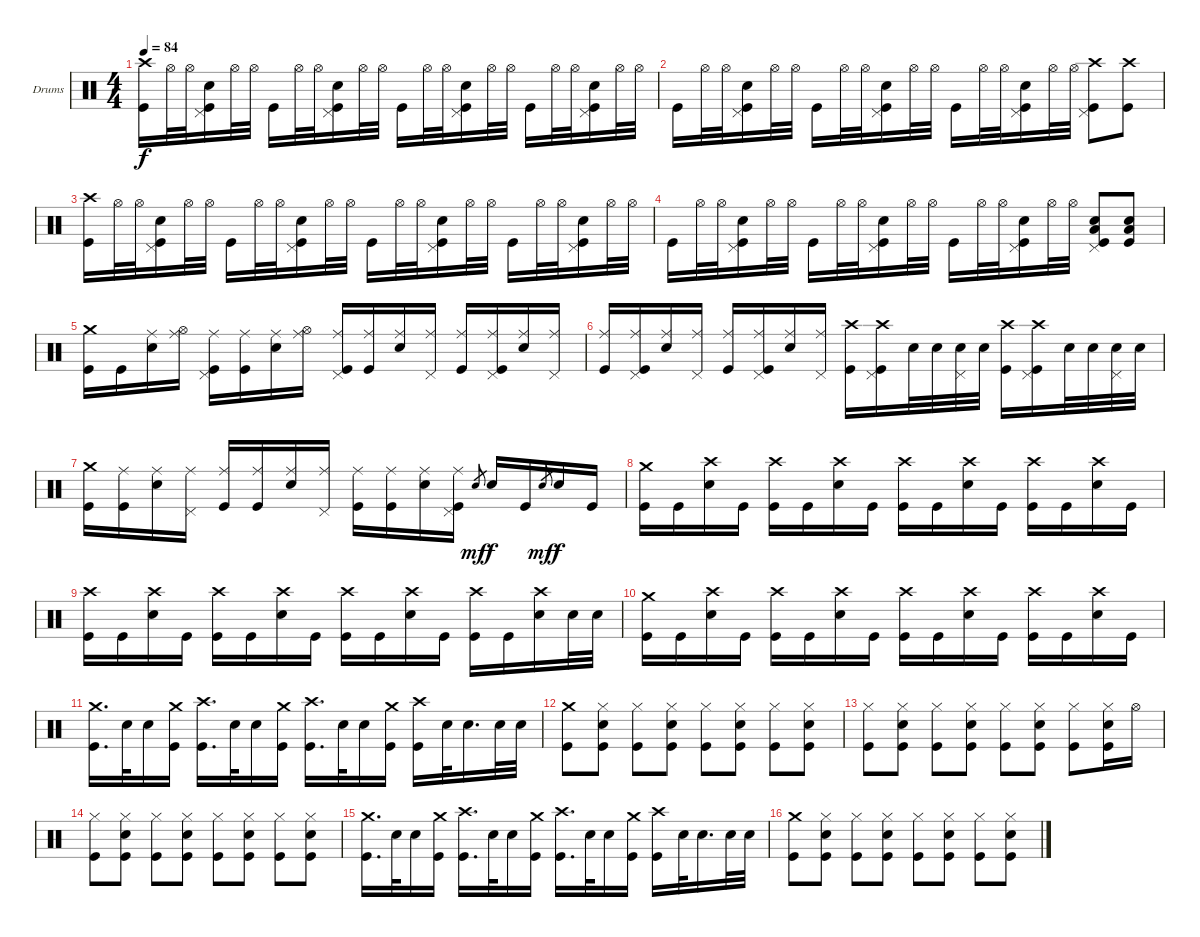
\bracketExtendMode groupsimilarinstruments
\firstSystemTrackNameOrientation horizontal
\otherSystemsTrackNameOrientation horizontal
\track ("Drumkit" "Drums") {solo instrument percussion}
\staff {score}
\articulation defaults
\ts (4 4)
\tempo 84
\clef neutral
\ks c
("Crash high (hit)" "Kick (hit)").16{dy f} "Hi-Hat (open)".32 "Hi-Hat (open)".32 ("Pedal Hi-Hat (hit)" "Snare (hit) 2" "Kick (hit)").16 "Hi-Hat (open)".32 "Hi-Hat (open)".32 "Kick (hit)".16 "Hi-Hat (open)".32 "Hi-Hat (open)".32 ("Pedal Hi-Hat (hit)" "Snare (hit) 2" "Kick (hit)").16 "Hi-Hat (open)".32 "Hi-Hat (open)".32 "Kick (hit)".16 "Hi-Hat (open)".32 "Hi-Hat (open)".32 ("Pedal Hi-Hat (hit)" "Snare (hit) 2" "Kick (hit)").16 "Hi-Hat (open)".32 "Hi-Hat (open)".32 "Kick (hit)".16 "Hi-Hat (open)".32 "Hi-Hat (open)".32 ("Pedal Hi-Hat (hit)" "Snare (hit) 2" "Kick (hit)").16 "Hi-Hat (open)".32 "Hi-Hat (open)".32 |
"Kick (hit)".16 "Hi-Hat (open)".32 "Hi-Hat (open)".32 ("Pedal Hi-Hat (hit)" "Snare (hit) 2" "Kick (hit)").16 "Hi-Hat (open)".32 "Hi-Hat (open)".32 "Kick (hit)".16 "Hi-Hat (open)".32 "Hi-Hat (open)".32 ("Pedal Hi-Hat (hit)" "Snare (hit) 2" "Kick (hit)").16 "Hi-Hat (open)".32 "Hi-Hat (open)".32 "Kick (hit)".16 "Hi-Hat (open)".32 "Hi-Hat (open)".32 ("Pedal Hi-Hat (hit)" "Snare (hit) 2" "Kick (hit)").16 "Hi-Hat (open)".32 "Hi-Hat (open)".32 ("Crash high (hit)" "Pedal Hi-Hat (hit)" "Kick (hit)").8 ("Crash high (hit)" "Kick (hit)").8 |
("Crash high (hit)" "Kick (hit)").16 "Hi-Hat (open)".32 "Hi-Hat (open)".32 ("Pedal Hi-Hat (hit)" "Snare (hit) 2" "Kick (hit)").16 "Hi-Hat (open)".32 "Hi-Hat (open)".32 "Kick (hit)".16 "Hi-Hat (open)".32 "Hi-Hat (open)".32 ("Pedal Hi-Hat (hit)" "Snare (hit) 2" "Kick (hit)").16 "Hi-Hat (open)".32 "Hi-Hat (open)".32 "Kick (hit)".16 "Hi-Hat (open)".32 "Hi-Hat (open)".32 ("Pedal Hi-Hat (hit)" "Snare (hit) 2" "Kick (hit)").16 "Hi-Hat (open)".32 "Hi-Hat (open)".32 "Kick (hit)".16 "Hi-Hat (open)".32 "Hi-Hat (open)".32 ("Pedal Hi-Hat (hit)" "Snare (hit) 2" "Kick (hit)").16 "Hi-Hat (open)".32 "Hi-Hat (open)".32 |
"Kick (hit)".16 "Hi-Hat (open)".32 "Hi-Hat (open)".32 ("Pedal Hi-Hat (hit)" "Snare (hit) 2" "Kick (hit)").16 "Hi-Hat (open)".32 "Hi-Hat (open)".32 "Kick (hit)".16 "Hi-Hat (open)".32 "Hi-Hat (open)".32 ("Pedal Hi-Hat (hit)" "Snare (hit) 2" "Kick (hit)").16 "Hi-Hat (open)".32 "Hi-Hat (open)".32 "Kick (hit)".16 "Hi-Hat (open)".32 "Hi-Hat (open)".32 ("Pedal Hi-Hat (hit)" "Snare (hit) 2" "Kick (hit)").16 "Hi-Hat (open)".32 "Hi-Hat (open)".32 ("Pedal Hi-Hat (hit)" "Snare (hit) 2" "Low Tom (hit)" "Kick (hit)").8 ("Snare (hit) 2" "Low Tom (hit)" "Kick (hit)").8 |
("Crash medium (hit)" "Kick (hit)").16 "Kick (hit)".16 ("Ride (middle)" "Snare (hit) 2").16 ("Ride (middle)" "Hi-Hat (open)").16 ("Ride (middle)" "Pedal Hi-Hat (hit)" "Kick (hit)").16 ("Ride (middle)" "Kick (hit)").16 ("Ride (middle)" "Snare (hit) 2").16 ("Ride (middle)" "Hi-Hat (open)").16 ("Ride (middle)" "Pedal Hi-Hat (hit)" "Kick (hit)").16 ("Ride (middle)" "Kick (hit)").16 ("Ride (middle)" "Snare (hit) 2").16 ("Ride (middle)" "Pedal Hi-Hat (hit)").16 ("Ride (middle)" "Kick (hit)").16 ("Ride (middle)" "Pedal Hi-Hat (hit)" "Kick (hit)").16 ("Ride (middle)" "Snare (hit) 2").16 ("Ride (middle)" "Pedal Hi-Hat (hit)").16 |
("Ride (middle)" "Kick (hit)").16 ("Ride (middle)" "Pedal Hi-Hat (hit)" "Kick (hit)").16 ("Ride (middle)" "Snare (hit) 2").16 ("Ride (middle)" "Pedal Hi-Hat (hit)").16 ("Ride (middle)" "Kick (hit)").16 ("Ride (middle)" "Pedal Hi-Hat (hit)" "Kick (hit)").16 ("Ride (middle)" "Snare (hit) 2").16 ("Ride (middle)" "Pedal Hi-Hat (hit)").16 ("Crash high (hit)" "Kick (hit)").16 ("Crash high (hit)" "Pedal Hi-Hat (hit)" "Kick (hit)").16 "Snare (hit) 2".32 "Snare (hit) 2".32 ("Pedal Hi-Hat (hit)" "Snare (hit) 2").32 "Snare (hit) 2".32 ("Crash high (hit)" "Kick (hit)").16 ("Crash high (hit)" "Pedal Hi-Hat (hit)" "Kick (hit)").16 "Snare (hit) 2".32 "Snare (hit) 2".32 ("Pedal Hi-Hat (hit)" "Snare (hit) 2").32 "Snare (hit) 2".32 |
("Crash medium (hit)" "Kick (hit)").16 ("Ride (middle)" "Kick (hit)").16 ("Ride (middle)" "Snare (hit) 2").16 ("Ride (middle)" "Pedal Hi-Hat (hit)").16 ("Ride (middle)" "Kick (hit)").16 ("Ride (middle)" "Kick (hit)").16 ("Ride (middle)" "Snare (hit) 2").16 ("Ride (middle)" "Pedal Hi-Hat (hit)").16 ("Ride (middle)" "Kick (hit)").16 ("Ride (middle)" "Kick (hit)").16 ("Ride (middle)" "Snare (hit) 2").16 ("Ride (middle)" "Pedal Hi-Hat (hit)" "Kick (hit)").16 "Snare (hit) 2".8{gr dy mf} "Snare (hit) 2".16{dy f} "Kick (hit)".16 "Snare (hit) 2".8{gr dy mf} "Snare (hit) 2".16{dy f} "Kick (hit)".16 |
("Crash medium (hit)" "Kick (hit)").16 "Kick (hit)".16 ("Crash high (hit)" "Snare (hit) 2").16 "Kick (hit)".16 ("Crash high (hit)" "Kick (hit)").16 "Kick (hit)".16 ("Crash high (hit)" "Snare (hit) 2").16 "Kick (hit)".16 ("Crash high (hit)" "Kick (hit)").16 "Kick (hit)".16 ("Crash high (hit)" "Snare (hit) 2").16 "Kick (hit)".16 ("Crash high (hit)" "Kick (hit)").16 "Kick (hit)".16 ("Crash high (hit)" "Snare (hit) 2").16 "Kick (hit)".16 |
("Crash high (hit)" "Kick (hit)").16 "Kick (hit)".16 ("Crash high (hit)" "Snare (hit) 2").16 "Kick (hit)".16 ("Crash high (hit)" "Kick (hit)").16 "Kick (hit)".16 ("Crash high (hit)" "Snare (hit) 2").16 "Kick (hit)".16 ("Crash high (hit)" "Kick (hit)").16 "Kick (hit)".16 ("Crash high (hit)" "Snare (hit) 2").16 "Kick (hit)".16 ("Crash high (hit)" "Kick (hit)").16 "Kick (hit)".16 ("Crash high (hit)" "Snare (hit) 2").16 "Snare (hit) 2".32 "Snare (hit) 2".32 |
("Crash medium (hit)" "Kick (hit)").16 "Kick (hit)".16 ("Crash high (hit)" "Snare (hit) 2").16 "Kick (hit)".16 ("Crash high (hit)" "Kick (hit)").16 "Kick (hit)".16 ("Crash high (hit)" "Snare (hit) 2").16 "Kick (hit)".16 ("Crash high (hit)" "Kick (hit)").16 "Kick (hit)".16 ("Crash high (hit)" "Snare (hit) 2").16 "Kick (hit)".16 ("Crash high (hit)" "Kick (hit)").16 "Kick (hit)".16 ("Crash high (hit)" "Snare (hit) 2").16 "Kick (hit)".16 |
("Crash medium (hit)" "Kick (hit)").16{d} "Snare (hit) 2".32 "Snare (hit) 2".16 ("Crash medium (hit)" "Kick (hit)").16 ("Crash high (hit)" "Kick (hit)").16{d} "Snare (hit) 2".32 "Snare (hit) 2".16 ("Crash medium (hit)" "Kick (hit)").16 ("Crash high (hit)" "Kick (hit)").16{d} "Snare (hit) 2".32 "Snare (hit) 2".16 ("Crash medium (hit)" "Kick (hit)").16 ("Crash high (hit)" "Kick (hit)").16 "Snare (hit) 2".32 "Snare (hit) 2".16{d} "Snare (hit) 2".32 "Snare (hit) 2".32 |
("Crash medium (hit)" "Kick (hit)").8 ("Hi-Hat (closed)" "Snare (hit) 2" "Kick (hit)").8 ("Hi-Hat (closed)" "Kick (hit)").8 ("Hi-Hat (closed)" "Snare (hit) 2" "Kick (hit)").8 ("Hi-Hat (closed)" "Kick (hit)").8 ("Hi-Hat (closed)" "Snare (hit) 2" "Kick (hit)").8 ("Hi-Hat (closed)" "Kick (hit)").8 ("Hi-Hat (closed)" "Snare (hit) 2" "Kick (hit)").8 |
("Hi-Hat (closed)" "Kick (hit)").8 ("Hi-Hat (closed)" "Snare (hit) 2" "Kick (hit)").8 ("Hi-Hat (closed)" "Kick (hit)").8 ("Hi-Hat (closed)" "Snare (hit) 2" "Kick (hit)").8 ("Hi-Hat (closed)" "Kick (hit)").8 ("Hi-Hat (closed)" "Snare (hit) 2" "Kick (hit)").8 ("Hi-Hat (closed)" "Kick (hit)").8 ("Hi-Hat (closed)" "Snare (hit) 2" "Kick (hit)").16 "Hi-Hat (open)".16 |
("Hi-Hat (closed)" "Kick (hit)").8 ("Hi-Hat (closed)" "Snare (hit) 2" "Kick (hit)").8 ("Hi-Hat (closed)" "Kick (hit)").8 ("Hi-Hat (closed)" "Snare (hit) 2" "Kick (hit)").8 ("Hi-Hat (closed)" "Kick (hit)").8 ("Hi-Hat (closed)" "Snare (hit) 2" "Kick (hit)").8 ("Hi-Hat (closed)" "Kick (hit)").8 ("Hi-Hat (closed)" "Snare (hit) 2" "Kick (hit)").8 |
("Crash medium (hit)" "Kick (hit)").16{d} "Snare (hit) 2".32 "Snare (hit) 2".16 ("Crash medium (hit)" "Kick (hit)").16 ("Crash high (hit)" "Kick (hit)").16{d} "Snare (hit) 2".32 "Snare (hit) 2".16 ("Crash medium (hit)" "Kick (hit)").16 ("Crash high (hit)" "Kick (hit)").16{d} "Snare (hit) 2".32 "Snare (hit) 2".16 ("Crash medium (hit)" "Kick (hit)").16 ("Crash high (hit)" "Kick (hit)").16 "Snare (hit) 2".32 "Snare (hit) 2".16{d} "Snare (hit) 2".32 "Snare (hit) 2".32 |
("Crash medium (hit)" "Kick (hit)").8 ("Hi-Hat (closed)" "Snare (hit) 2" "Kick (hit)").8 ("Hi-Hat (closed)" "Kick (hit)").8 ("Hi-Hat (closed)" "Snare (hit) 2" "Kick (hit)").8 ("Hi-Hat (closed)" "Kick (hit)").8 ("Hi-Hat (closed)" "Snare (hit) 2" "Kick (hit)").8 ("Hi-Hat (closed)" "Kick (hit)").8 ("Hi-Hat (closed)" "Snare (hit) 2" "Kick (hit)").8
